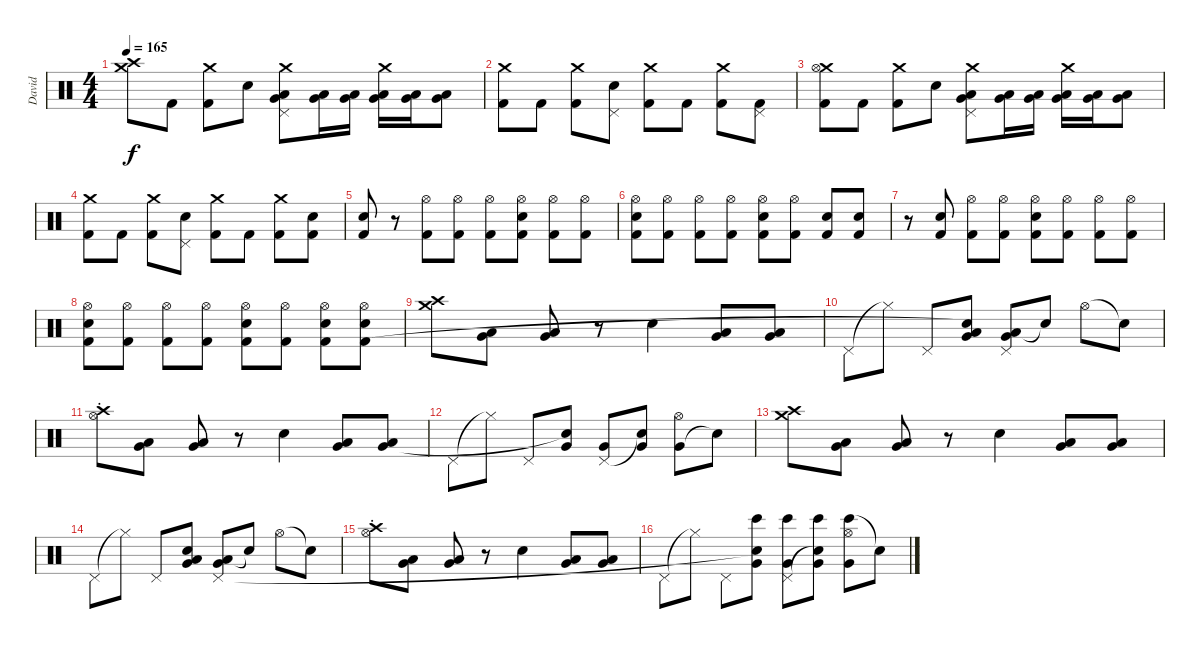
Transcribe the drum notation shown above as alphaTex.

\track ("David" "David") {instrument percussion}
\staff {score}
\articulation defaults
\ts (4 4)
\tempo 165
\clef neutral
\ks c
("Crash medium (hit)" "Crash high (hit)").8{dy f} "Kick (hit) 2".8 ("Crash medium (hit)" "Kick (hit) 2").8 "Electric Snare (hit)".8 ("Crash medium (hit)" "Low Tom (hit)" "Very Low Tom (hit)" "Pedal Hi-Hat (hit)").8 ("Low Tom (hit)" "Very Low Tom (hit)").16 ("Low Tom (hit)" "Very Low Tom (hit)").16 ("Crash medium (hit)" "Low Tom (hit)" "Very Low Tom (hit)").16 ("Low Tom (hit)" "Very Low Tom (hit)").16 ("Low Tom (hit)" "Very Low Tom (hit)").8 |
("Crash medium (hit)" "Kick (hit) 2").8 "Kick (hit) 2".8 ("Crash medium (hit)" "Kick (hit) 2").8 ("Electric Snare (hit)" "Pedal Hi-Hat (hit)").8 ("Crash medium (hit)" "Kick (hit) 2").8 "Kick (hit) 2".8 ("Crash medium (hit)" "Kick (hit) 2").8 ("Pedal Hi-Hat (hit)" "Kick (hit) 2").8 |
("Crash medium (hit)" "Hi-Hat (open)" "Kick (hit) 2").8 "Kick (hit) 2".8 ("Crash medium (hit)" "Kick (hit) 2").8 "Electric Snare (hit)".8 ("Crash medium (hit)" "Low Tom (hit)" "Very Low Tom (hit)" "Pedal Hi-Hat (hit)").8 ("Low Tom (hit)" "Very Low Tom (hit)").16 ("Low Tom (hit)" "Very Low Tom (hit)").16 ("Crash medium (hit)" "Low Tom (hit)" "Very Low Tom (hit)").16 ("Low Tom (hit)" "Very Low Tom (hit)").16 ("Low Tom (hit)" "Very Low Tom (hit)").8 |
("Crash medium (hit)" "Kick (hit) 2").8 "Kick (hit) 2".8 ("Crash medium (hit)" "Kick (hit) 2").8 ("Electric Snare (hit)" "Pedal Hi-Hat (hit)").8 ("Crash medium (hit)" "Kick (hit) 2").8 "Kick (hit) 2".8 ("Crash medium (hit)" "Kick (hit) 2").8 ("Electric Snare (hit)" "Kick (hit) 2").8 |
("Electric Snare (hit)" "Kick (hit) 2").8 r.8 ("Hi-Hat (open)" "Kick (hit) 2").8 ("Hi-Hat (open)" "Kick (hit) 2").8 ("Hi-Hat (open)" "Kick (hit) 2").8 ("Electric Snare (hit)" "Hi-Hat (open)" "Kick (hit) 2").8 ("Hi-Hat (open)" "Kick (hit) 2").8 ("Hi-Hat (open)" "Kick (hit) 2").8 |
("Electric Snare (hit)" "Hi-Hat (open)" "Kick (hit) 2").8 ("Hi-Hat (open)" "Kick (hit) 2").8 ("Hi-Hat (open)" "Kick (hit) 2").8 ("Hi-Hat (open)" "Kick (hit) 2").8 ("Electric Snare (hit)" "Hi-Hat (open)" "Kick (hit) 2").8 ("Hi-Hat (open)" "Kick (hit) 2").8 ("Electric Snare (hit)" "Kick (hit) 2").8 ("Electric Snare (hit)" "Kick (hit) 2").8 |
r.8 ("Electric Snare (hit)" "Kick (hit) 2").8 ("Hi-Hat (open)" "Kick (hit) 2").8 ("Hi-Hat (open)" "Kick (hit) 2").8 ("Electric Snare (hit)" "Hi-Hat (open)" "Kick (hit) 2").8 ("Hi-Hat (open)" "Kick (hit) 2").8 ("Hi-Hat (open)" "Kick (hit) 2").8 ("Hi-Hat (open)" "Kick (hit) 2").8 |
("Electric Snare (hit)" "Hi-Hat (open)" "Kick (hit) 2").8 ("Hi-Hat (open)" "Kick (hit) 2").8 ("Hi-Hat (open)" "Kick (hit) 2").8 ("Hi-Hat (open)" "Kick (hit) 2").8 ("Electric Snare (hit)" "Hi-Hat (open)" "Kick (hit) 2").8 ("Hi-Hat (open)" "Kick (hit) 2").8 ("Electric Snare (hit)" "Hi-Hat (open)" "Kick (hit) 2").8 ("Electric Snare (hit)" "Hi-Hat (open)" "Kick (hit) 2").8 |
("Crash high (hit)" "Crash medium (hit)").8 ("Low Floor Tom (hit)" "Very Low Tom (hit)").8 ("Low Floor Tom (hit)" "Very Low Tom (hit)").8 r.8 "Electric Snare (hit)".4 ("Low Floor Tom (hit)" "Very Low Tom (hit)").8 ("Low Floor Tom (hit)" "Very Low Tom (hit)").8 |
"Pedal Hi-Hat (hit)".8 "Hi-Hat (closed)"{t}.8 "Pedal Hi-Hat (hit)".8 ("Low Tom (hit)" "Very Low Tom (hit)" "Snare (hit)"{t}).8 ("Low Floor Tom (hit)" "Very Low Tom (hit)" "Pedal Hi-Hat (hit)").8 "Snare (hit)"{t}.8 "Hi-Hat (open)".8 "Snare (hit)"{t}.8 |
("Crash high (hit)" "Hi-Hat (open)"{st}).8 ("Low Floor Tom (hit)" "Very Low Tom (hit)").8 ("Low Floor Tom (hit)" "Very Low Tom (hit)").8 r.8 "Electric Snare (hit)".4 ("Low Floor Tom (hit)" "Very Low Tom (hit)").8 ("Low Floor Tom (hit)" "Very Low Tom (hit)").8 |
"Pedal Hi-Hat (hit)".8 "Hi-Hat (closed)"{t}.8 "Pedal Hi-Hat (hit)".8 ("Very Low Tom (hit)" "Snare (hit)"{t}).8 ("Very Low Tom (hit)" "Pedal Hi-Hat (hit)").8 ("Very Low Tom (hit)" "Snare (hit)"{t}).8 ("Very Low Tom (hit)" "Hi-Hat (open)").8 "Snare (hit)"{t}.8 |
("Crash high (hit)" "Crash medium (hit)").8 ("Low Floor Tom (hit)" "Very Low Tom (hit)").8 ("Low Floor Tom (hit)" "Very Low Tom (hit)").8 r.8 "Electric Snare (hit)".4 ("Low Floor Tom (hit)" "Very Low Tom (hit)").8 ("Low Floor Tom (hit)" "Very Low Tom (hit)").8 |
"Pedal Hi-Hat (hit)".8 "Hi-Hat (closed)"{t}.8 "Pedal Hi-Hat (hit)".8 ("Low Tom (hit)" "Very Low Tom (hit)" "Snare (hit)").8 ("Low Floor Tom (hit)" "Very Low Tom (hit)" "Pedal Hi-Hat (hit)").8 "Snare (hit)"{t}.8 "Hi-Hat (open)".8 "Snare (hit)"{t}.8 |
("Crash high (hit)" "Hi-Hat (open)"{st}).8 ("Low Floor Tom (hit)" "Very Low Tom (hit)").8 ("Low Floor Tom (hit)" "Very Low Tom (hit)").8 r.8 "Electric Snare (hit)".4 ("Low Floor Tom (hit)" "Very Low Tom (hit)").8 ("Low Floor Tom (hit)" "Very Low Tom (hit)").8 |
"Pedal Hi-Hat (hit)".8 "Hi-Hat (closed)"{t}.8 "Pedal Hi-Hat (hit)".8 ("Bongo High (hit)" "Very Low Tom (hit)" "Snare (hit)"{t}).8 ("Bongo High (hit)" "Very Low Tom (hit)" "Pedal Hi-Hat (hit)").8 ("Bongo High (hit)" "Very Low Tom (hit)" "Snare (hit)"{t}).8 ("Bongo High (hit)" "Very Low Tom (hit)" "Hi-Hat (open)").8 "Snare (hit)"{t}.8
